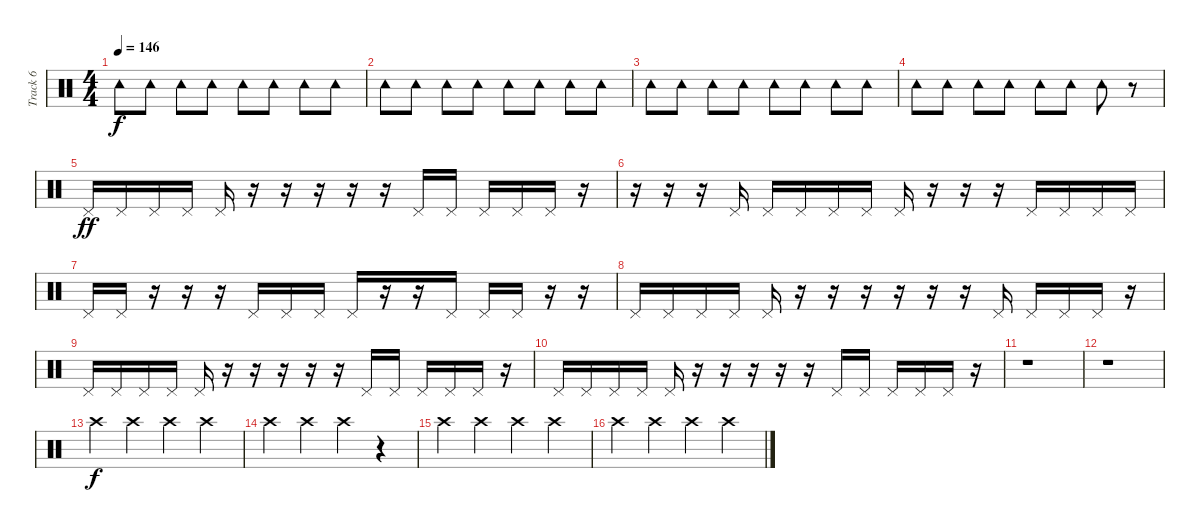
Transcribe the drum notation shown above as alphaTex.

\track ("Track 6" "Track 6") {instrument percussion}
\staff {score}
\articulation defaults
\ts (4 4)
\tempo 146
\clef neutral
\ks c "Tambourine (hit)".8{dy f} "Tambourine (hit)".8 "Tambourine (hit)".8 "Tambourine (hit)".8 "Tambourine (hit)".8 "Tambourine (hit)".8 "Tambourine (hit)".8 "Tambourine (hit)".8
|
"Tambourine (hit)".8 "Tambourine (hit)".8 "Tambourine (hit)".8 "Tambourine (hit)".8 "Tambourine (hit)".8 "Tambourine (hit)".8 "Tambourine (hit)".8 "Tambourine (hit)".8 |
"Tambourine (hit)".8 "Tambourine (hit)".8 "Tambourine (hit)".8 "Tambourine (hit)".8 "Tambourine (hit)".8 "Tambourine (hit)".8 "Tambourine (hit)".8 "Tambourine (hit)".8 |
"Tambourine (hit)".8 "Tambourine (hit)".8 "Tambourine (hit)".8 "Tambourine (hit)".8 "Tambourine (hit)".8 "Tambourine (hit)".8 "Tambourine (hit)".8 r.8 |
"Pedal Hi-Hat (hit)".16{dy ff} "Pedal Hi-Hat (hit)".16 "Pedal Hi-Hat (hit)".16 "Pedal Hi-Hat (hit)".16 "Pedal Hi-Hat (hit)".16 r.16 r.16 r.16 r.16 r.16 "Pedal Hi-Hat (hit)".16 "Pedal Hi-Hat (hit)".16 "Pedal Hi-Hat (hit)".16 "Pedal Hi-Hat (hit)".16 "Pedal Hi-Hat (hit)".16 r.16 |
r.16 r.16 r.16 "Pedal Hi-Hat (hit)".16 "Pedal Hi-Hat (hit)".16 "Pedal Hi-Hat (hit)".16 "Pedal Hi-Hat (hit)".16 "Pedal Hi-Hat (hit)".16 "Pedal Hi-Hat (hit)".16 r.16 r.16 r.16 "Pedal Hi-Hat (hit)".16 "Pedal Hi-Hat (hit)".16 "Pedal Hi-Hat (hit)".16 "Pedal Hi-Hat (hit)".16 |
"Pedal Hi-Hat (hit)".16 "Pedal Hi-Hat (hit)".16 r.16 r.16 r.16 "Pedal Hi-Hat (hit)".16 "Pedal Hi-Hat (hit)".16 "Pedal Hi-Hat (hit)".16 "Pedal Hi-Hat (hit)".16 r.16 r.16 "Pedal Hi-Hat (hit)".16 "Pedal Hi-Hat (hit)".16 "Pedal Hi-Hat (hit)".16 r.16 r.16 |
"Pedal Hi-Hat (hit)".16 "Pedal Hi-Hat (hit)".16 "Pedal Hi-Hat (hit)".16 "Pedal Hi-Hat (hit)".16 "Pedal Hi-Hat (hit)".16 r.16 r.16 r.16 r.16 r.16 r.16 "Pedal Hi-Hat (hit)".16 "Pedal Hi-Hat (hit)".16 "Pedal Hi-Hat (hit)".16 "Pedal Hi-Hat (hit)".16 r.16 |
"Pedal Hi-Hat (hit)".16 "Pedal Hi-Hat (hit)".16 "Pedal Hi-Hat (hit)".16 "Pedal Hi-Hat (hit)".16 "Pedal Hi-Hat (hit)".16 r.16 r.16 r.16 r.16 r.16 "Pedal Hi-Hat (hit)".16 "Pedal Hi-Hat (hit)".16 "Pedal Hi-Hat (hit)".16 "Pedal Hi-Hat (hit)".16 "Pedal Hi-Hat (hit)".16 r.16 |
"Pedal Hi-Hat (hit)".16 "Pedal Hi-Hat (hit)".16 "Pedal Hi-Hat (hit)".16 "Pedal Hi-Hat (hit)".16 "Pedal Hi-Hat (hit)".16 r.16 r.16 r.16 r.16 r.16 "Pedal Hi-Hat (hit)".16 "Pedal Hi-Hat (hit)".16 "Pedal Hi-Hat (hit)".16 "Pedal Hi-Hat (hit)".16 "Pedal Hi-Hat (hit)".16 r.16 |
r.1 |
r.1 |
"Crash high (hit)".4{dy f} "Crash high (hit)".4 "Crash high (hit)".4 "Crash high (hit)".4 |
"Crash high (hit)".4 "Crash high (hit)".4 "Crash high (hit)".4 r.4 |
"Crash high (hit)".4 "Crash high (hit)".4 "Crash high (hit)".4 "Crash high (hit)".4 |
"Crash high (hit)".4 "Crash high (hit)".4 "Crash high (hit)".4 "Crash high (hit)".4
